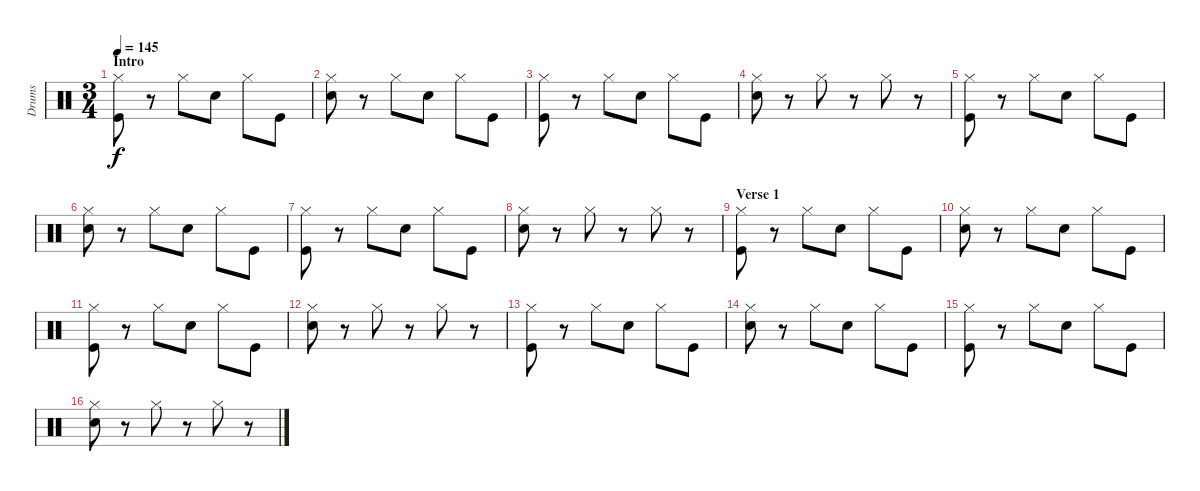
\track ("Drums" "Drums") {instrument percussion}
\staff {score}
\articulation defaults
\ts (3 4)
\section ("" "Intro")
\tempo 145
\clef neutral
\ks c
("Hi-Hat (closed)" "Kick (hit)").8{dy f} r.8 "Hi-Hat (closed)".8 "Electric Snare (hit)".8 "Hi-Hat (closed)".8 "Kick (hit)".8 |
("Hi-Hat (closed)" "Electric Snare (hit)").8 r.8 "Hi-Hat (closed)".8 "Electric Snare (hit)".8 "Hi-Hat (closed)".8 "Kick (hit)".8 |
("Hi-Hat (closed)" "Kick (hit)").8 r.8 "Hi-Hat (closed)".8 "Electric Snare (hit)".8 "Hi-Hat (closed)".8 "Kick (hit)".8 |
("Hi-Hat (closed)" "Electric Snare (hit)").8 r.8 "Hi-Hat (closed)".8 r.8 "Hi-Hat (closed)".8 r.8 |
("Hi-Hat (closed)" "Kick (hit)").8 r.8 "Hi-Hat (closed)".8 "Electric Snare (hit)".8 "Hi-Hat (closed)".8 "Kick (hit)".8 |
("Hi-Hat (closed)" "Electric Snare (hit)").8 r.8 "Hi-Hat (closed)".8 "Electric Snare (hit)".8 "Hi-Hat (closed)".8 "Kick (hit)".8 |
("Hi-Hat (closed)" "Kick (hit)").8 r.8 "Hi-Hat (closed)".8 "Electric Snare (hit)".8 "Hi-Hat (closed)".8 "Kick (hit)".8 |
("Hi-Hat (closed)" "Electric Snare (hit)").8 r.8 "Hi-Hat (closed)".8 r.8 "Hi-Hat (closed)".8 r.8 |
\section ("" "Verse 1")
("Hi-Hat (closed)" "Kick (hit)").8 r.8 "Hi-Hat (closed)".8 "Electric Snare (hit)".8 "Hi-Hat (closed)".8 "Kick (hit)".8 |
("Hi-Hat (closed)" "Electric Snare (hit)").8 r.8 "Hi-Hat (closed)".8 "Electric Snare (hit)".8 "Hi-Hat (closed)".8 "Kick (hit)".8 |
("Hi-Hat (closed)" "Kick (hit)").8 r.8 "Hi-Hat (closed)".8 "Electric Snare (hit)".8 "Hi-Hat (closed)".8 "Kick (hit)".8 |
("Hi-Hat (closed)" "Electric Snare (hit)").8 r.8 "Hi-Hat (closed)".8 r.8 "Hi-Hat (closed)".8 r.8 |
("Hi-Hat (closed)" "Kick (hit)").8 r.8 "Hi-Hat (closed)".8 "Electric Snare (hit)".8 "Hi-Hat (closed)".8 "Kick (hit)".8 |
("Hi-Hat (closed)" "Electric Snare (hit)").8 r.8 "Hi-Hat (closed)".8 "Electric Snare (hit)".8 "Hi-Hat (closed)".8 "Kick (hit)".8 |
("Hi-Hat (closed)" "Kick (hit)").8 r.8 "Hi-Hat (closed)".8 "Electric Snare (hit)".8 "Hi-Hat (closed)".8 "Kick (hit)".8 |
("Hi-Hat (closed)" "Electric Snare (hit)").8 r.8 "Hi-Hat (closed)".8 r.8 "Hi-Hat (closed)".8 r.8
